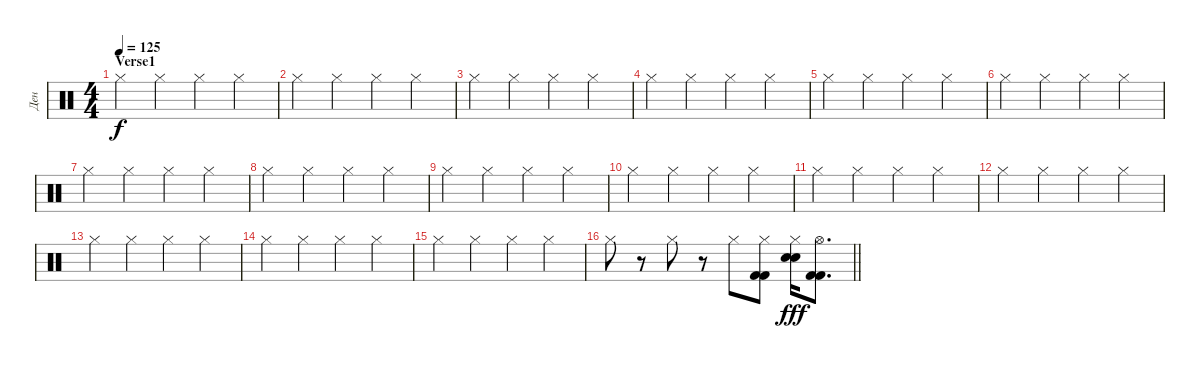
\track ("Ден" "Ден") {instrument percussion}
\staff {score}
\articulation defaults
\ts (4 4)
\section ("" "Verse1")
\tempo 125
\clef neutral
\ks c "Hi-Hat (closed)".4{dy f} "Hi-Hat (closed)".4 "Hi-Hat (closed)".4 "Hi-Hat (closed)".4
|
"Hi-Hat (closed)".4 "Hi-Hat (closed)".4 "Hi-Hat (closed)".4 "Hi-Hat (closed)".4 |
"Hi-Hat (closed)".4 "Hi-Hat (closed)".4 "Hi-Hat (closed)".4 "Hi-Hat (closed)".4 |
"Hi-Hat (closed)".4 "Hi-Hat (closed)".4 "Hi-Hat (closed)".4 "Hi-Hat (closed)".4 |
"Hi-Hat (closed)".4 "Hi-Hat (closed)".4 "Hi-Hat (closed)".4 "Hi-Hat (closed)".4 |
"Hi-Hat (closed)".4 "Hi-Hat (closed)".4 "Hi-Hat (closed)".4 "Hi-Hat (closed)".4 |
"Hi-Hat (closed)".4 "Hi-Hat (closed)".4 "Hi-Hat (closed)".4 "Hi-Hat (closed)".4 |
"Hi-Hat (closed)".4 "Hi-Hat (closed)".4 "Hi-Hat (closed)".4 "Hi-Hat (closed)".4 |
"Hi-Hat (closed)".4 "Hi-Hat (closed)".4 "Hi-Hat (closed)".4 "Hi-Hat (closed)".4 |
"Hi-Hat (closed)".4 "Hi-Hat (closed)".4 "Hi-Hat (closed)".4 "Hi-Hat (closed)".4 |
"Hi-Hat (closed)".4 "Hi-Hat (closed)".4 "Hi-Hat (closed)".4 "Hi-Hat (closed)".4 |
"Hi-Hat (closed)".4 "Hi-Hat (closed)".4 "Hi-Hat (closed)".4 "Hi-Hat (closed)".4 |
"Hi-Hat (closed)".4 "Hi-Hat (closed)".4 "Hi-Hat (closed)".4 "Hi-Hat (closed)".4 |
"Hi-Hat (closed)".4 "Hi-Hat (closed)".4 "Hi-Hat (closed)".4 "Hi-Hat (closed)".4 |
"Hi-Hat (closed)".4 "Hi-Hat (closed)".4 "Hi-Hat (closed)".4 "Hi-Hat (closed)".4 |
\barLineRight lightlight "Hi-Hat (closed)".8
r.8 "Hi-Hat (closed)".8 r.8 "Hi-Hat (closed)".8 ("Hi-Hat (closed)" "Kick (hit) 2" "Kick (hit) 2").8 ("Hi-Hat (closed)" "Electric Snare (hit)" "Electric Snare (hit)").16{dy fff} ("Hi-Hat (open)" "Kick (hit) 2" "Kick (hit) 2").8{d}
